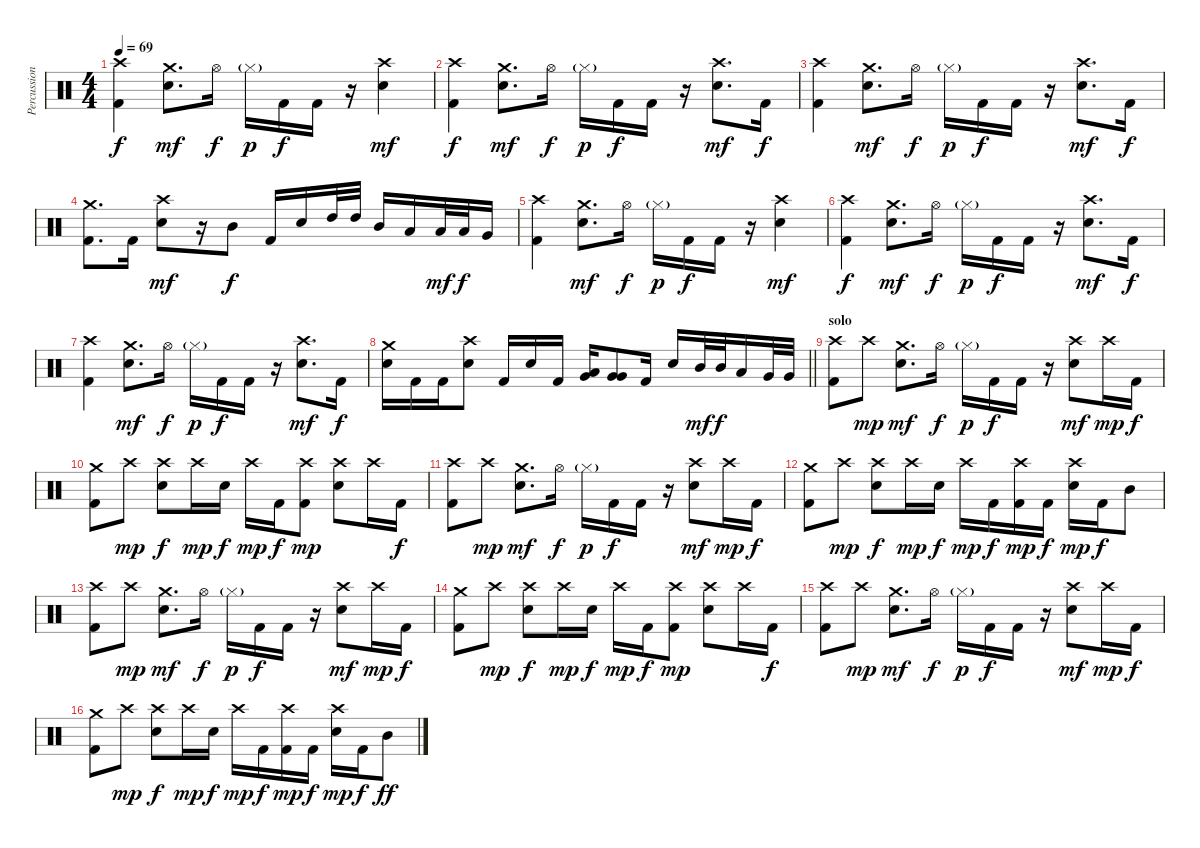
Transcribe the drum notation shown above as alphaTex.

\track ("Percussion" "Percussion") {instrument percussion}
\staff {score}
\articulation defaults
\ts (4 4)
\tempo 69
\clef neutral
\ks c
("Crash high (hit)" "Kick (hit) 2").4{dy f} ("Crash medium (hit)" "Snare (hit) 2").8{d dy mf} "Hi-Hat (open)".16{dy f} "Hi-Hat (closed)"{g}.16{dy p} "Kick (hit) 2".16{dy f} "Kick (hit) 2".16 r.16 ("Crash high (hit)" "Snare (hit) 2").4{dy mf} |
("Crash high (hit)" "Kick (hit) 2").4{dy f} ("Crash medium (hit)" "Snare (hit) 2").8{d dy mf} "Hi-Hat (open)".16{dy f} "Hi-Hat (closed)"{g}.16{dy p} "Kick (hit) 2".16{dy f} "Kick (hit) 2".16 r.16 ("Crash high (hit)" "Snare (hit) 2").8{d dy mf} "Kick (hit) 2".16{dy f} |
("Crash high (hit)" "Kick (hit) 2").4 ("Crash medium (hit)" "Snare (hit) 2").8{d dy mf} "Hi-Hat (open)".16{dy f} "Hi-Hat (closed)"{g}.16{dy p} "Kick (hit) 2".16{dy f} "Kick (hit) 2".16 r.16 ("Crash high (hit)" "Snare (hit) 2").8{d dy mf} "Kick (hit) 2".16{dy f} |
("Crash medium (hit)" "Kick (hit) 2").8{d} "Kick (hit) 2".16 ("Crash high (hit)" "Snare (hit) 2").8{dy mf} r.16 "Mid Tom (hit)".8{dy f} "Kick (hit) 2".16 "Snare (hit) 2".16 "High Tom (hit)".32 "High Tom (hit)".32 "Mid Tom (hit)".16 "Low Tom (hit)".16 "Low Tom (hit)".32{dy mf} "Low Tom (hit)".32{dy f} "Very Low Tom (hit)".16 |
("Crash high (hit)" "Kick (hit) 2").4 ("Crash medium (hit)" "Snare (hit) 2").8{d dy mf} "Hi-Hat (open)".16{dy f} "Hi-Hat (closed)"{g}.16{dy p} "Kick (hit) 2".16{dy f} "Kick (hit) 2".16 r.16 ("Crash high (hit)" "Snare (hit) 2").4{dy mf} |
("Crash high (hit)" "Kick (hit) 2").4{dy f} ("Crash medium (hit)" "Snare (hit) 2").8{d dy mf} "Hi-Hat (open)".16{dy f} "Hi-Hat (closed)"{g}.16{dy p} "Kick (hit) 2".16{dy f} "Kick (hit) 2".16 r.16 ("Crash high (hit)" "Snare (hit) 2").8{d dy mf} "Kick (hit) 2".16{dy f} |
("Crash high (hit)" "Kick (hit) 2").4 ("Crash medium (hit)" "Snare (hit) 2").8{d dy mf} "Hi-Hat (open)".16{dy f} "Hi-Hat (closed)"{g}.16{dy p} "Kick (hit) 2".16{dy f} "Kick (hit) 2".16 r.16 ("Crash high (hit)" "Snare (hit) 2").8{d dy mf} "Kick (hit) 2".16{dy f} |
\barLineRight lightlight
("Crash medium (hit)" "Snare (hit) 2").16 "Kick (hit) 2".16 "Kick (hit) 2".16 ("Crash high (hit)" "Snare (hit) 2").8 "Kick (hit) 2".16 "Snare (hit) 2".16 "Kick (hit) 2".16 ("Low Floor Tom (hit)" "Very Low Tom (hit)").16 ("Very Low Tom (hit)" "Very Low Tom (hit)").8 "Kick (hit) 2".16 "Snare (hit) 2".16 "Mid Tom (hit)".32{dy mf} "Mid Tom (hit)".32{dy f} "Low Tom (hit)".16 "Very Low Tom (hit)".32 "Very Low Tom (hit)".32 |
\section ("" "solo")
("Crash high (hit)" "Kick (hit) 2").8 "Crash high (hit)".8{dy mp} ("Crash medium (hit)" "Snare (hit) 2").8{d dy mf} "Hi-Hat (open)".16{dy f} "Hi-Hat (closed)"{g}.16{dy p} "Kick (hit) 2".16{dy f} "Kick (hit) 2".16 r.16 ("Crash high (hit)" "Snare (hit) 2").8{dy mf} "Crash high (hit)".16{dy mp} "Kick (hit) 2".16{dy f} |
("Crash medium (hit)" "Kick (hit) 2").8 "Crash high (hit)".8{dy mp} ("Crash high (hit)" "Snare (hit) 2").8{dy f} "Crash high (hit)".16{dy mp} "Snare (hit) 2".16{dy f} "Crash high (hit)".16{dy mp} "Kick (hit) 2".16{dy f} ("Crash high (hit)" "Kick (hit) 2").8{dy mp} ("Crash high (hit)" "Snare (hit) 2").8 "Crash high (hit)".16 "Kick (hit) 2".16{dy f} |
("Crash high (hit)" "Kick (hit) 2").8 "Crash high (hit)".8{dy mp} ("Crash medium (hit)" "Snare (hit) 2").8{d dy mf} "Hi-Hat (open)".16{dy f} "Hi-Hat (closed)"{g}.16{dy p} "Kick (hit) 2".16{dy f} "Kick (hit) 2".16 r.16 ("Crash high (hit)" "Snare (hit) 2").8{dy mf} "Crash high (hit)".16{dy mp} "Kick (hit) 2".16{dy f} |
("Crash medium (hit)" "Kick (hit) 2").8 "Crash high (hit)".8{dy mp} ("Crash high (hit)" "Snare (hit) 2").8{dy f} "Crash high (hit)".16{dy mp} "Snare (hit) 2".16{dy f} "Crash high (hit)".16{dy mp} "Kick (hit) 2".16{dy f} ("Crash high (hit)" "Kick (hit) 2").16{dy mp} "Kick (hit) 2".16{dy f} ("Crash high (hit)" "Snare (hit) 2").16{dy mp} "Kick (hit) 2".16{dy f} "Mid Tom (hit)".8 |
("Crash high (hit)" "Kick (hit) 2").8 "Crash high (hit)".8{dy mp} ("Crash medium (hit)" "Snare (hit) 2").8{d dy mf} "Hi-Hat (open)".16{dy f} "Hi-Hat (closed)"{g}.16{dy p} "Kick (hit) 2".16{dy f} "Kick (hit) 2".16 r.16 ("Crash high (hit)" "Snare (hit) 2").8{dy mf} "Crash high (hit)".16{dy mp} "Kick (hit) 2".16{dy f} |
("Crash medium (hit)" "Kick (hit) 2").8 "Crash high (hit)".8{dy mp} ("Crash high (hit)" "Snare (hit) 2").8{dy f} "Crash high (hit)".16{dy mp} "Snare (hit) 2".16{dy f} "Crash high (hit)".16{dy mp} "Kick (hit) 2".16{dy f} ("Crash high (hit)" "Kick (hit) 2").8{dy mp} ("Crash high (hit)" "Snare (hit) 2").8 "Crash high (hit)".16 "Kick (hit) 2".16{dy f} |
("Crash high (hit)" "Kick (hit) 2").8 "Crash high (hit)".8{dy mp} ("Crash medium (hit)" "Snare (hit) 2").8{d dy mf} "Hi-Hat (open)".16{dy f} "Hi-Hat (closed)"{g}.16{dy p} "Kick (hit) 2".16{dy f} "Kick (hit) 2".16 r.16 ("Crash high (hit)" "Snare (hit) 2").8{dy mf} "Crash high (hit)".16{dy mp} "Kick (hit) 2".16{dy f} |
("Crash medium (hit)" "Kick (hit) 2").8 "Crash high (hit)".8{dy mp} ("Crash high (hit)" "Snare (hit) 2").8{dy f} "Crash high (hit)".16{dy mp} "Snare (hit) 2".16{dy f} "Crash high (hit)".16{dy mp} "Kick (hit) 2".16{dy f} ("Crash high (hit)" "Kick (hit) 2").16{dy mp} "Kick (hit) 2".16{dy f} ("Crash high (hit)" "Snare (hit) 2").16{dy mp} "Kick (hit) 2".16{dy f} "Mid Tom (hit)".8{dy ff}
